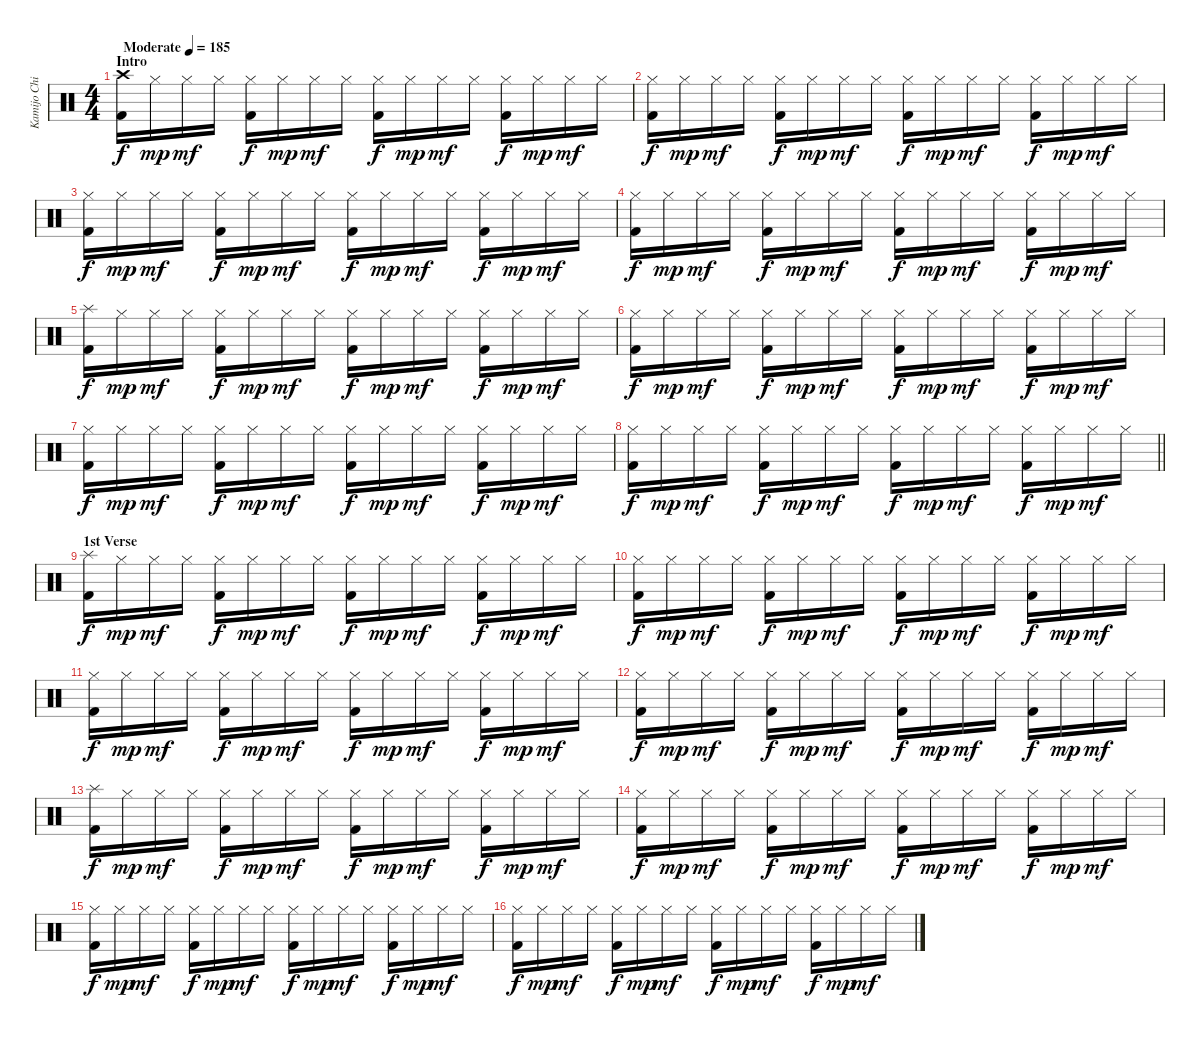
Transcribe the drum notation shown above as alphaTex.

\track ("Kamijo Chihiro" "Kamijo Chi") {instrument percussion}
\staff {score}
\articulation defaults
\ts (4 4)
\section ("" "Intro")
\tempo (185 "Moderate")
\clef neutral
\ks c
("Crash high (hit)" "Kick (hit) 2").16{dy f} "Hi-Hat (closed)".16{dy mp} "Hi-Hat (closed)".16{dy mf} "Hi-Hat (closed)".16 ("Hi-Hat (closed)" "Kick (hit) 2").16{dy f} "Hi-Hat (closed)".16{dy mp} "Hi-Hat (closed)".16{dy mf} "Hi-Hat (closed)".16 ("Hi-Hat (closed)" "Kick (hit) 2").16{dy f} "Hi-Hat (closed)".16{dy mp} "Hi-Hat (closed)".16{dy mf} "Hi-Hat (closed)".16 ("Hi-Hat (closed)" "Kick (hit) 2").16{dy f} "Hi-Hat (closed)".16{dy mp} "Hi-Hat (closed)".16{dy mf} "Hi-Hat (closed)".16 |
("Hi-Hat (closed)" "Kick (hit) 2").16{dy f} "Hi-Hat (closed)".16{dy mp} "Hi-Hat (closed)".16{dy mf} "Hi-Hat (closed)".16 ("Hi-Hat (closed)" "Kick (hit) 2").16{dy f} "Hi-Hat (closed)".16{dy mp} "Hi-Hat (closed)".16{dy mf} "Hi-Hat (closed)".16 ("Hi-Hat (closed)" "Kick (hit) 2").16{dy f} "Hi-Hat (closed)".16{dy mp} "Hi-Hat (closed)".16{dy mf} "Hi-Hat (closed)".16 ("Hi-Hat (closed)" "Kick (hit) 2").16{dy f} "Hi-Hat (closed)".16{dy mp} "Hi-Hat (closed)".16{dy mf} "Hi-Hat (closed)".16 |
("Hi-Hat (closed)" "Kick (hit) 2").16{dy f} "Hi-Hat (closed)".16{dy mp} "Hi-Hat (closed)".16{dy mf} "Hi-Hat (closed)".16 ("Hi-Hat (closed)" "Kick (hit) 2").16{dy f} "Hi-Hat (closed)".16{dy mp} "Hi-Hat (closed)".16{dy mf} "Hi-Hat (closed)".16 ("Hi-Hat (closed)" "Kick (hit) 2").16{dy f} "Hi-Hat (closed)".16{dy mp} "Hi-Hat (closed)".16{dy mf} "Hi-Hat (closed)".16 ("Hi-Hat (closed)" "Kick (hit) 2").16{dy f} "Hi-Hat (closed)".16{dy mp} "Hi-Hat (closed)".16{dy mf} "Hi-Hat (closed)".16 |
("Hi-Hat (closed)" "Kick (hit) 2").16{dy f} "Hi-Hat (closed)".16{dy mp} "Hi-Hat (closed)".16{dy mf} "Hi-Hat (closed)".16 ("Hi-Hat (closed)" "Kick (hit) 2").16{dy f} "Hi-Hat (closed)".16{dy mp} "Hi-Hat (closed)".16{dy mf} "Hi-Hat (closed)".16 ("Hi-Hat (closed)" "Kick (hit) 2").16{dy f} "Hi-Hat (closed)".16{dy mp} "Hi-Hat (closed)".16{dy mf} "Hi-Hat (closed)".16 ("Hi-Hat (closed)" "Kick (hit) 2").16{dy f} "Hi-Hat (closed)".16{dy mp} "Hi-Hat (closed)".16{dy mf} "Hi-Hat (closed)".16 |
("Splash (hit)" "Kick (hit) 2").16{dy f} "Hi-Hat (closed)".16{dy mp} "Hi-Hat (closed)".16{dy mf} "Hi-Hat (closed)".16 ("Hi-Hat (closed)" "Kick (hit) 2").16{dy f} "Hi-Hat (closed)".16{dy mp} "Hi-Hat (closed)".16{dy mf} "Hi-Hat (closed)".16 ("Hi-Hat (closed)" "Kick (hit) 2").16{dy f} "Hi-Hat (closed)".16{dy mp} "Hi-Hat (closed)".16{dy mf} "Hi-Hat (closed)".16 ("Hi-Hat (closed)" "Kick (hit) 2").16{dy f} "Hi-Hat (closed)".16{dy mp} "Hi-Hat (closed)".16{dy mf} "Hi-Hat (closed)".16 |
("Hi-Hat (closed)" "Kick (hit) 2").16{dy f} "Hi-Hat (closed)".16{dy mp} "Hi-Hat (closed)".16{dy mf} "Hi-Hat (closed)".16 ("Hi-Hat (closed)" "Kick (hit) 2").16{dy f} "Hi-Hat (closed)".16{dy mp} "Hi-Hat (closed)".16{dy mf} "Hi-Hat (closed)".16 ("Hi-Hat (closed)" "Kick (hit) 2").16{dy f} "Hi-Hat (closed)".16{dy mp} "Hi-Hat (closed)".16{dy mf} "Hi-Hat (closed)".16 ("Hi-Hat (closed)" "Kick (hit) 2").16{dy f} "Hi-Hat (closed)".16{dy mp} "Hi-Hat (closed)".16{dy mf} "Hi-Hat (closed)".16 |
("Hi-Hat (closed)" "Kick (hit) 2").16{dy f} "Hi-Hat (closed)".16{dy mp} "Hi-Hat (closed)".16{dy mf} "Hi-Hat (closed)".16 ("Hi-Hat (closed)" "Kick (hit) 2").16{dy f} "Hi-Hat (closed)".16{dy mp} "Hi-Hat (closed)".16{dy mf} "Hi-Hat (closed)".16 ("Hi-Hat (closed)" "Kick (hit) 2").16{dy f} "Hi-Hat (closed)".16{dy mp} "Hi-Hat (closed)".16{dy mf} "Hi-Hat (closed)".16 ("Hi-Hat (closed)" "Kick (hit) 2").16{dy f} "Hi-Hat (closed)".16{dy mp} "Hi-Hat (closed)".16{dy mf} "Hi-Hat (closed)".16 |
\barLineRight lightlight
("Hi-Hat (closed)" "Kick (hit) 2").16{dy f} "Hi-Hat (closed)".16{dy mp} "Hi-Hat (closed)".16{dy mf} "Hi-Hat (closed)".16 ("Hi-Hat (closed)" "Kick (hit) 2").16{dy f} "Hi-Hat (closed)".16{dy mp} "Hi-Hat (closed)".16{dy mf} "Hi-Hat (closed)".16 ("Hi-Hat (closed)" "Kick (hit) 2").16{dy f} "Hi-Hat (closed)".16{dy mp} "Hi-Hat (closed)".16{dy mf} "Hi-Hat (closed)".16 ("Hi-Hat (closed)" "Kick (hit) 2").16{dy f} "Hi-Hat (closed)".16{dy mp} "Hi-Hat (closed)".16{dy mf} "Hi-Hat (closed)".16 |
\section ("" "1st Verse")
("Splash (hit)" "Kick (hit) 2").16{dy f} "Hi-Hat (closed)".16{dy mp} "Hi-Hat (closed)".16{dy mf} "Hi-Hat (closed)".16 ("Hi-Hat (closed)" "Kick (hit) 2").16{dy f} "Hi-Hat (closed)".16{dy mp} "Hi-Hat (closed)".16{dy mf} "Hi-Hat (closed)".16 ("Hi-Hat (closed)" "Kick (hit) 2").16{dy f} "Hi-Hat (closed)".16{dy mp} "Hi-Hat (closed)".16{dy mf} "Hi-Hat (closed)".16 ("Hi-Hat (closed)" "Kick (hit) 2").16{dy f} "Hi-Hat (closed)".16{dy mp} "Hi-Hat (closed)".16{dy mf} "Hi-Hat (closed)".16 |
("Hi-Hat (closed)" "Kick (hit) 2").16{dy f} "Hi-Hat (closed)".16{dy mp} "Hi-Hat (closed)".16{dy mf} "Hi-Hat (closed)".16 ("Hi-Hat (closed)" "Kick (hit) 2").16{dy f} "Hi-Hat (closed)".16{dy mp} "Hi-Hat (closed)".16{dy mf} "Hi-Hat (closed)".16 ("Hi-Hat (closed)" "Kick (hit) 2").16{dy f} "Hi-Hat (closed)".16{dy mp} "Hi-Hat (closed)".16{dy mf} "Hi-Hat (closed)".16 ("Hi-Hat (closed)" "Kick (hit) 2").16{dy f} "Hi-Hat (closed)".16{dy mp} "Hi-Hat (closed)".16{dy mf} "Hi-Hat (closed)".16 |
("Hi-Hat (closed)" "Kick (hit) 2").16{dy f} "Hi-Hat (closed)".16{dy mp} "Hi-Hat (closed)".16{dy mf} "Hi-Hat (closed)".16 ("Hi-Hat (closed)" "Kick (hit) 2").16{dy f} "Hi-Hat (closed)".16{dy mp} "Hi-Hat (closed)".16{dy mf} "Hi-Hat (closed)".16 ("Hi-Hat (closed)" "Kick (hit) 2").16{dy f} "Hi-Hat (closed)".16{dy mp} "Hi-Hat (closed)".16{dy mf} "Hi-Hat (closed)".16 ("Hi-Hat (closed)" "Kick (hit) 2").16{dy f} "Hi-Hat (closed)".16{dy mp} "Hi-Hat (closed)".16{dy mf} "Hi-Hat (closed)".16 |
("Hi-Hat (closed)" "Kick (hit) 2").16{dy f} "Hi-Hat (closed)".16{dy mp} "Hi-Hat (closed)".16{dy mf} "Hi-Hat (closed)".16 ("Hi-Hat (closed)" "Kick (hit) 2").16{dy f} "Hi-Hat (closed)".16{dy mp} "Hi-Hat (closed)".16{dy mf} "Hi-Hat (closed)".16 ("Hi-Hat (closed)" "Kick (hit) 2").16{dy f} "Hi-Hat (closed)".16{dy mp} "Hi-Hat (closed)".16{dy mf} "Hi-Hat (closed)".16 ("Hi-Hat (closed)" "Kick (hit) 2").16{dy f} "Hi-Hat (closed)".16{dy mp} "Hi-Hat (closed)".16{dy mf} "Hi-Hat (closed)".16 |
("Splash (hit)" "Kick (hit) 2").16{dy f} "Hi-Hat (closed)".16{dy mp} "Hi-Hat (closed)".16{dy mf} "Hi-Hat (closed)".16 ("Hi-Hat (closed)" "Kick (hit) 2").16{dy f} "Hi-Hat (closed)".16{dy mp} "Hi-Hat (closed)".16{dy mf} "Hi-Hat (closed)".16 ("Hi-Hat (closed)" "Kick (hit) 2").16{dy f} "Hi-Hat (closed)".16{dy mp} "Hi-Hat (closed)".16{dy mf} "Hi-Hat (closed)".16 ("Hi-Hat (closed)" "Kick (hit) 2").16{dy f} "Hi-Hat (closed)".16{dy mp} "Hi-Hat (closed)".16{dy mf} "Hi-Hat (closed)".16 |
("Hi-Hat (closed)" "Kick (hit) 2").16{dy f} "Hi-Hat (closed)".16{dy mp} "Hi-Hat (closed)".16{dy mf} "Hi-Hat (closed)".16 ("Hi-Hat (closed)" "Kick (hit) 2").16{dy f} "Hi-Hat (closed)".16{dy mp} "Hi-Hat (closed)".16{dy mf} "Hi-Hat (closed)".16 ("Hi-Hat (closed)" "Kick (hit) 2").16{dy f} "Hi-Hat (closed)".16{dy mp} "Hi-Hat (closed)".16{dy mf} "Hi-Hat (closed)".16 ("Hi-Hat (closed)" "Kick (hit) 2").16{dy f} "Hi-Hat (closed)".16{dy mp} "Hi-Hat (closed)".16{dy mf} "Hi-Hat (closed)".16 |
("Hi-Hat (closed)" "Kick (hit) 2").16{dy f} "Hi-Hat (closed)".16{dy mp} "Hi-Hat (closed)".16{dy mf} "Hi-Hat (closed)".16 ("Hi-Hat (closed)" "Kick (hit) 2").16{dy f} "Hi-Hat (closed)".16{dy mp} "Hi-Hat (closed)".16{dy mf} "Hi-Hat (closed)".16 ("Hi-Hat (closed)" "Kick (hit) 2").16{dy f} "Hi-Hat (closed)".16{dy mp} "Hi-Hat (closed)".16{dy mf} "Hi-Hat (closed)".16 ("Hi-Hat (closed)" "Kick (hit) 2").16{dy f} "Hi-Hat (closed)".16{dy mp} "Hi-Hat (closed)".16{dy mf} "Hi-Hat (closed)".16 |
("Hi-Hat (closed)" "Kick (hit) 2").16{dy f} "Hi-Hat (closed)".16{dy mp} "Hi-Hat (closed)".16{dy mf} "Hi-Hat (closed)".16 ("Hi-Hat (closed)" "Kick (hit) 2").16{dy f} "Hi-Hat (closed)".16{dy mp} "Hi-Hat (closed)".16{dy mf} "Hi-Hat (closed)".16 ("Hi-Hat (closed)" "Kick (hit) 2").16{dy f} "Hi-Hat (closed)".16{dy mp} "Hi-Hat (closed)".16{dy mf} "Hi-Hat (closed)".16 ("Hi-Hat (closed)" "Kick (hit) 2").16{dy f} "Hi-Hat (closed)".16{dy mp} "Hi-Hat (closed)".16{dy mf} "Hi-Hat (closed)".16
